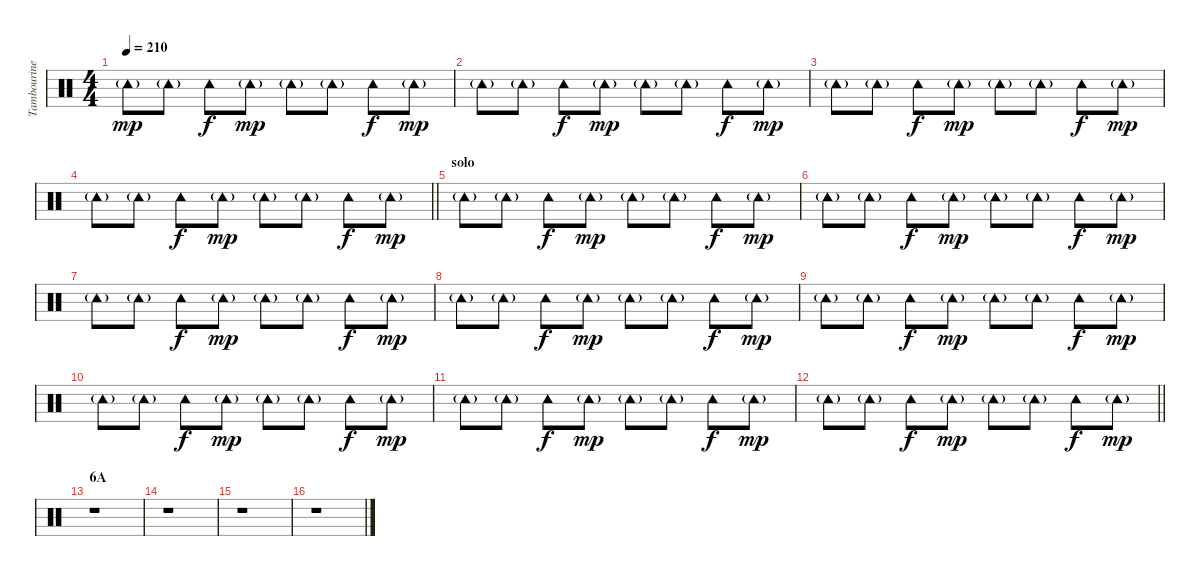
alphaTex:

\track ("Tambourine" "Tambourine") {instrument percussion}
\staff {score}
\articulation defaults
\ts (4 4)
\tempo 210
\clef neutral
\ks c "Tambourine (hit)"{g}.8{dy mp} "Tambourine (hit)"{g}.8 "Tambourine (hit)".8{dy f} "Tambourine (hit)"{g}.8{dy mp} "Tambourine (hit)"{g}.8 "Tambourine (hit)"{g}.8 "Tambourine (hit)".8{dy f} "Tambourine (hit)"{g}.8{dy mp}
|
"Tambourine (hit)"{g}.8 "Tambourine (hit)"{g}.8 "Tambourine (hit)".8{dy f} "Tambourine (hit)"{g}.8{dy mp} "Tambourine (hit)"{g}.8 "Tambourine (hit)"{g}.8 "Tambourine (hit)".8{dy f} "Tambourine (hit)"{g}.8{dy mp} |
"Tambourine (hit)"{g}.8 "Tambourine (hit)"{g}.8 "Tambourine (hit)".8{dy f} "Tambourine (hit)"{g}.8{dy mp} "Tambourine (hit)"{g}.8 "Tambourine (hit)"{g}.8 "Tambourine (hit)".8{dy f} "Tambourine (hit)"{g}.8{dy mp} |
\barLineRight lightlight "Tambourine (hit)"{g}.8 "Tambourine (hit)"{g}.8 "Tambourine (hit)".8{dy f} "Tambourine (hit)"{g}.8{dy mp} "Tambourine (hit)"{g}.8 "Tambourine (hit)"{g}.8 "Tambourine (hit)".8{dy f} "Tambourine (hit)"{g}.8{dy mp}
|
\section ("" "solo")
"Tambourine (hit)"{g}.8 "Tambourine (hit)"{g}.8 "Tambourine (hit)".8{dy f} "Tambourine (hit)"{g}.8{dy mp} "Tambourine (hit)"{g}.8 "Tambourine (hit)"{g}.8 "Tambourine (hit)".8{dy f} "Tambourine (hit)"{g}.8{dy mp} |
"Tambourine (hit)"{g}.8 "Tambourine (hit)"{g}.8 "Tambourine (hit)".8{dy f} "Tambourine (hit)"{g}.8{dy mp} "Tambourine (hit)"{g}.8 "Tambourine (hit)"{g}.8 "Tambourine (hit)".8{dy f} "Tambourine (hit)"{g}.8{dy mp} |
"Tambourine (hit)"{g}.8 "Tambourine (hit)"{g}.8 "Tambourine (hit)".8{dy f} "Tambourine (hit)"{g}.8{dy mp} "Tambourine (hit)"{g}.8 "Tambourine (hit)"{g}.8 "Tambourine (hit)".8{dy f} "Tambourine (hit)"{g}.8{dy mp} |
"Tambourine (hit)"{g}.8 "Tambourine (hit)"{g}.8 "Tambourine (hit)".8{dy f} "Tambourine (hit)"{g}.8{dy mp} "Tambourine (hit)"{g}.8 "Tambourine (hit)"{g}.8 "Tambourine (hit)".8{dy f} "Tambourine (hit)"{g}.8{dy mp} |
"Tambourine (hit)"{g}.8 "Tambourine (hit)"{g}.8 "Tambourine (hit)".8{dy f} "Tambourine (hit)"{g}.8{dy mp} "Tambourine (hit)"{g}.8 "Tambourine (hit)"{g}.8 "Tambourine (hit)".8{dy f} "Tambourine (hit)"{g}.8{dy mp} |
"Tambourine (hit)"{g}.8 "Tambourine (hit)"{g}.8 "Tambourine (hit)".8{dy f} "Tambourine (hit)"{g}.8{dy mp} "Tambourine (hit)"{g}.8 "Tambourine (hit)"{g}.8 "Tambourine (hit)".8{dy f} "Tambourine (hit)"{g}.8{dy mp} |
"Tambourine (hit)"{g}.8 "Tambourine (hit)"{g}.8 "Tambourine (hit)".8{dy f} "Tambourine (hit)"{g}.8{dy mp} "Tambourine (hit)"{g}.8 "Tambourine (hit)"{g}.8 "Tambourine (hit)".8{dy f} "Tambourine (hit)"{g}.8{dy mp} |
\barLineRight lightlight "Tambourine (hit)"{g}.8 "Tambourine (hit)"{g}.8 "Tambourine (hit)".8{dy f} "Tambourine (hit)"{g}.8{dy mp} "Tambourine (hit)"{g}.8 "Tambourine (hit)"{g}.8 "Tambourine (hit)".8{dy f} "Tambourine (hit)"{g}.8{dy mp}
|
\section ("" "6A")
r.1 |
r.1 |
r.1 |
r.1
